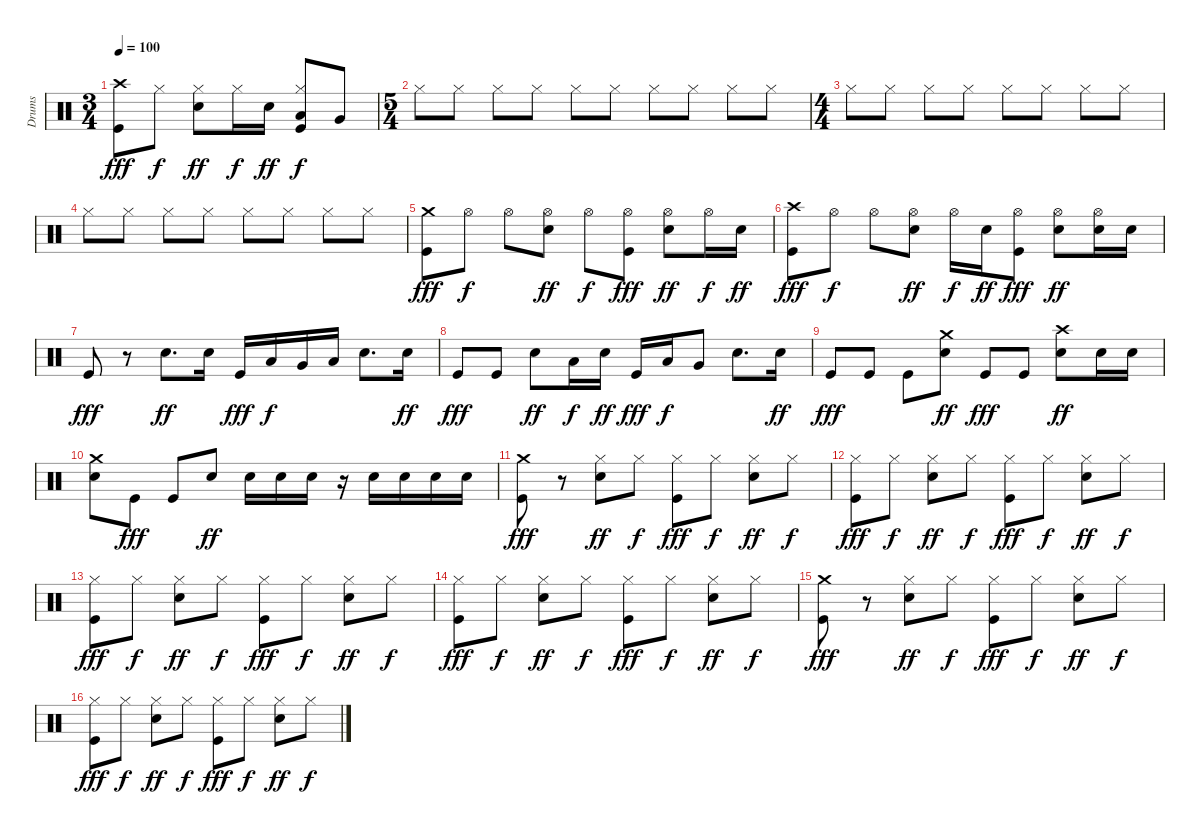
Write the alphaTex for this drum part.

\track ("Drums" "Drums") {instrument percussion}
\staff {score}
\articulation defaults
\ts (3 4)
\tempo 100
\clef neutral
\ks c
("Kick (hit)" "Crash high (hit)").8{dy fff} "Hi-Hat (closed)".8{dy f} ("Snare (hit) 2" "Hi-Hat (closed)").8{dy ff} "Hi-Hat (closed)".16{dy f} "Snare (hit) 2".16{dy ff} ("Kick (hit)" "Low Tom (hit)" "Hi-Hat (closed)").8{dy f} "Very Low Tom (hit)".8 |
\ts (5 4)
"Hi-Hat (closed)".8 "Hi-Hat (closed)".8 "Hi-Hat (closed)".8 "Hi-Hat (closed)".8 "Hi-Hat (closed)".8 "Hi-Hat (closed)".8 "Hi-Hat (closed)".8 "Hi-Hat (closed)".8 "Hi-Hat (closed)".8 "Hi-Hat (closed)".8 |
\ts (4 4)
"Hi-Hat (closed)".8 "Hi-Hat (closed)".8 "Hi-Hat (closed)".8 "Hi-Hat (closed)".8 "Hi-Hat (closed)".8 "Hi-Hat (closed)".8 "Hi-Hat (closed)".8 "Hi-Hat (closed)".8 |
"Hi-Hat (closed)".8 "Hi-Hat (closed)".8 "Hi-Hat (closed)".8 "Hi-Hat (closed)".8 "Hi-Hat (closed)".8 "Hi-Hat (closed)".8 "Hi-Hat (closed)".8 "Hi-Hat (closed)".8 |
("Kick (hit)" "Crash medium (hit)").8{dy fff} "Hi-Hat (open)".8{dy f} "Hi-Hat (open)".8 ("Snare (hit) 2" "Hi-Hat (open)").8{dy ff} "Hi-Hat (open)".8{dy f} ("Kick (hit)" "Hi-Hat (open)").8{dy fff} ("Snare (hit) 2" "Hi-Hat (open)").8{dy ff} "Hi-Hat (open)".16{dy f} "Snare (hit) 2".16{dy ff} |
("Kick (hit)" "Crash high (hit)").8{dy fff} "Hi-Hat (open)".8{dy f} "Hi-Hat (open)".8 ("Snare (hit) 2" "Hi-Hat (open)").8{dy ff} "Hi-Hat (open)".16{dy f} "Snare (hit) 2".16{dy ff} ("Kick (hit)" "Hi-Hat (open)").8{dy fff} ("Snare (hit) 2" "Hi-Hat (open)").8{dy ff} ("Snare (hit) 2" "Hi-Hat (open)").16 "Snare (hit) 2".16 |
"Kick (hit)".8{dy fff} r.8 "Snare (hit) 2".8{d dy ff} "Snare (hit) 2".16 "Kick (hit)".16{dy fff} "Low Tom (hit)".16{dy f} "Very Low Tom (hit)".16 "Low Floor Tom (hit)".16 "Snare (hit) 2".8{d} "Snare (hit) 2".16{dy ff} |
"Kick (hit)".8{dy fff} "Kick (hit)".8 "Snare (hit) 2".8{dy ff} "Low Tom (hit)".16{dy f} "Snare (hit) 2".16{dy ff} "Kick (hit)".16{dy fff} "Low Tom (hit)".16{dy f} "Very Low Tom (hit)".8 "Snare (hit) 2".8{d} "Snare (hit) 2".16{dy ff} |
"Kick (hit)".8{dy fff} "Kick (hit)".8 "Kick (hit)".8 ("Snare (hit) 2" "Crash medium (hit)").8{dy ff} "Kick (hit)".8{dy fff} "Kick (hit)".8 ("Snare (hit) 2" "Crash high (hit)").8{dy ff} "Snare (hit) 2".16 "Snare (hit) 2".16 |
("Snare (hit) 2" "Crash medium (hit)").8 "Kick (hit)".8{dy fff} "Kick (hit)".8 "Snare (hit) 2".8{dy ff} "Snare (hit) 2".16 "Snare (hit) 2".16 "Snare (hit) 2".16 r.16 "Snare (hit) 2".16 "Snare (hit) 2".16 "Snare (hit) 2".16 "Snare (hit) 2".16 |
("Kick (hit)" "Crash medium (hit)").8{dy fff} r.8 ("Snare (hit) 2" "Hi-Hat (closed)").8{dy ff} "Hi-Hat (closed)".8{dy f} ("Kick (hit)" "Hi-Hat (closed)").8{dy fff} "Hi-Hat (closed)".8{dy f} ("Snare (hit) 2" "Hi-Hat (closed)").8{dy ff} "Hi-Hat (closed)".8{dy f} |
("Kick (hit)" "Hi-Hat (closed)").8{dy fff} "Hi-Hat (closed)".8{dy f} ("Snare (hit) 2" "Hi-Hat (closed)").8{dy ff} "Hi-Hat (closed)".8{dy f} ("Kick (hit)" "Hi-Hat (closed)").8{dy fff} "Hi-Hat (closed)".8{dy f} ("Snare (hit) 2" "Hi-Hat (closed)").8{dy ff} "Hi-Hat (closed)".8{dy f} |
("Kick (hit)" "Hi-Hat (closed)").8{dy fff} "Hi-Hat (closed)".8{dy f} ("Snare (hit) 2" "Hi-Hat (closed)").8{dy ff} "Hi-Hat (closed)".8{dy f} ("Kick (hit)" "Hi-Hat (closed)").8{dy fff} "Hi-Hat (closed)".8{dy f} ("Snare (hit) 2" "Hi-Hat (closed)").8{dy ff} "Hi-Hat (closed)".8{dy f} |
("Kick (hit)" "Hi-Hat (closed)").8{dy fff} "Hi-Hat (closed)".8{dy f} ("Snare (hit) 2" "Hi-Hat (closed)").8{dy ff} "Hi-Hat (closed)".8{dy f} ("Kick (hit)" "Hi-Hat (closed)").8{dy fff} "Hi-Hat (closed)".8{dy f} ("Snare (hit) 2" "Hi-Hat (closed)").8{dy ff} "Hi-Hat (closed)".8{dy f} |
("Kick (hit)" "Crash medium (hit)").8{dy fff} r.8 ("Snare (hit) 2" "Hi-Hat (closed)").8{dy ff} "Hi-Hat (closed)".8{dy f} ("Kick (hit)" "Hi-Hat (closed)").8{dy fff} "Hi-Hat (closed)".8{dy f} ("Snare (hit) 2" "Hi-Hat (closed)").8{dy ff} "Hi-Hat (closed)".8{dy f} |
("Kick (hit)" "Hi-Hat (closed)").8{dy fff} "Hi-Hat (closed)".8{dy f} ("Snare (hit) 2" "Hi-Hat (closed)").8{dy ff} "Hi-Hat (closed)".8{dy f} ("Kick (hit)" "Hi-Hat (closed)").8{dy fff} "Hi-Hat (closed)".8{dy f} ("Snare (hit) 2" "Hi-Hat (closed)").8{dy ff} "Hi-Hat (closed)".8{dy f}
